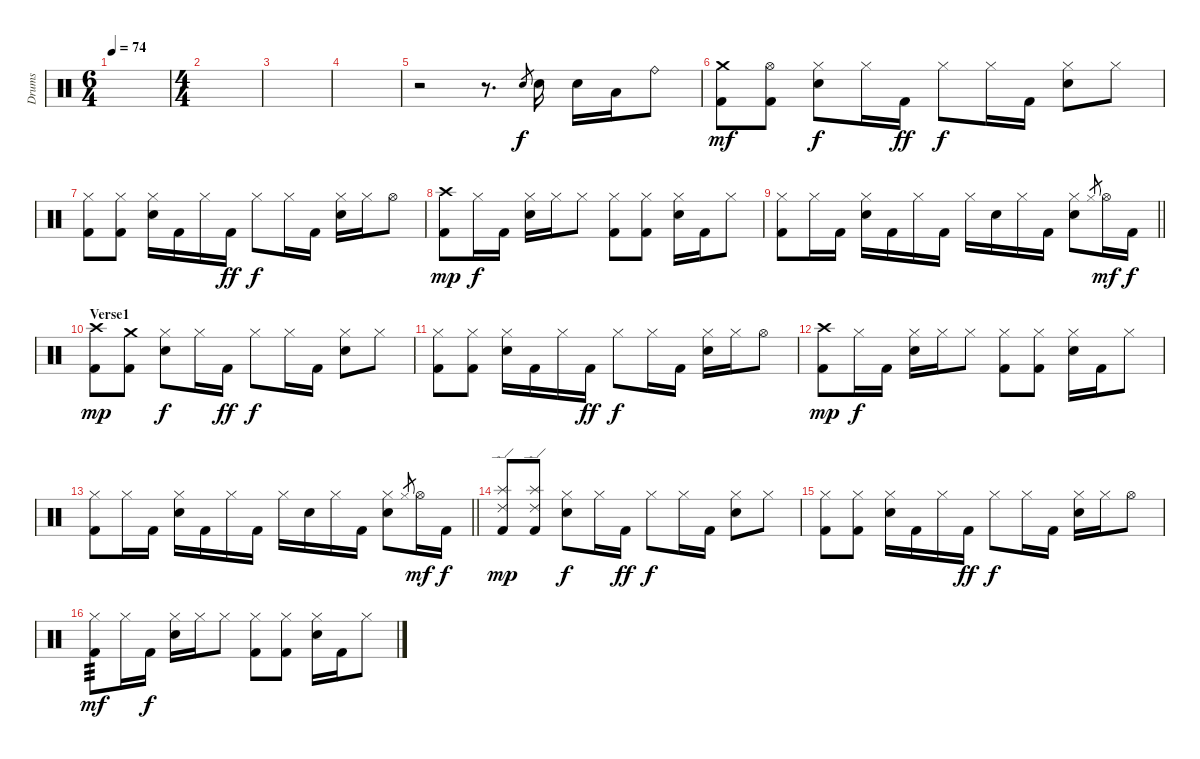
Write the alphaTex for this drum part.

\track ("Drums" "Drums") {instrument percussion}
\staff {score}
\articulation defaults
\ts (6 4)
\tempo 74
\clef neutral
\ks c
|
\ts (4 4)
|
|
|
r.2 r.8{d} "Snare (hit) 2".8{gr} "Snare (hit) 2".16{dy f} "Snare (hit) 2".16 "Low Tom (hit)".16 "Ride (bell)".8 |
("Crash medium (hit)" "Kick (hit) 2").8{dy mf} ("Hi-Hat (open)" "Kick (hit) 2").8 ("Hi-Hat (closed)" "Snare (hit) 2").8{dy f} "Hi-Hat (closed)".16 "Kick (hit) 2".16{dy ff} "Hi-Hat (closed)".8{dy f} "Hi-Hat (closed)".16 "Kick (hit) 2".16 ("Hi-Hat (closed)" "Snare (hit) 2").8 "Hi-Hat (closed)".8 |
("Hi-Hat (closed)" "Kick (hit) 2").8 ("Hi-Hat (closed)" "Kick (hit) 2").8 ("Hi-Hat (closed)" "Snare (hit) 2").16 "Kick (hit) 2".16 "Hi-Hat (closed)".16 "Kick (hit) 2".16{dy ff} "Hi-Hat (closed)".8{dy f} "Hi-Hat (closed)".16 "Kick (hit) 2".16 ("Hi-Hat (closed)" "Snare (hit) 2").16 "Hi-Hat (closed)".16 "Hi-Hat (open)".8 |
("Crash high (hit)" "Kick (hit) 2").8{dy mp} "Hi-Hat (closed)".16{dy f} "Kick (hit) 2".16 ("Hi-Hat (closed)" "Snare (hit) 2").16 "Hi-Hat (closed)".16 "Hi-Hat (closed)".8 ("Hi-Hat (closed)" "Kick (hit) 2").8 ("Hi-Hat (closed)" "Kick (hit) 2").8 ("Hi-Hat (closed)" "Snare (hit) 2").16 "Kick (hit) 2".16 "Hi-Hat (closed)".8 |
\barLineRight lightlight
("Hi-Hat (closed)" "Kick (hit) 2").8 "Hi-Hat (closed)".16 "Kick (hit) 2".16 ("Hi-Hat (closed)" "Snare (hit) 2").16 "Kick (hit) 2".16 "Hi-Hat (closed)".16 "Kick (hit) 2".16 "Hi-Hat (closed)".16 "Snare (hit) 2".16 "Hi-Hat (closed)".16 "Kick (hit) 2".16 ("Hi-Hat (closed)" "Snare (hit) 2").8 "Hi-Hat (closed)".8{gr} "Hi-Hat (open)".16{dy mf} "Kick (hit) 2".16{dy f} |
\section ("" "Verse1")
("Crash high (hit)" "Kick (hit) 2").8{dy mp} ("Crash medium (hit)" "Kick (hit) 2").8 ("Hi-Hat (closed)" "Snare (hit) 2").8{dy f} "Hi-Hat (closed)".16 "Kick (hit) 2".16{dy ff} "Hi-Hat (closed)".8{dy f} "Hi-Hat (closed)".16 "Kick (hit) 2".16 ("Hi-Hat (closed)" "Snare (hit) 2").8 "Hi-Hat (closed)".8 |
("Hi-Hat (closed)" "Kick (hit) 2").8 ("Hi-Hat (closed)" "Kick (hit) 2").8 ("Hi-Hat (closed)" "Snare (hit) 2").16 "Kick (hit) 2".16 "Hi-Hat (closed)".16 "Kick (hit) 2".16{dy ff} "Hi-Hat (closed)".8{dy f} "Hi-Hat (closed)".16 "Kick (hit) 2".16 ("Hi-Hat (closed)" "Snare (hit) 2").16 "Hi-Hat (closed)".16 "Hi-Hat (open)".8 |
("Crash high (hit)" "Kick (hit) 2").8{dy mp} "Hi-Hat (closed)".16{dy f} "Kick (hit) 2".16 ("Hi-Hat (closed)" "Snare (hit) 2").16 "Hi-Hat (closed)".16 "Hi-Hat (closed)".8 ("Hi-Hat (closed)" "Kick (hit) 2").8 ("Hi-Hat (closed)" "Kick (hit) 2").8 ("Hi-Hat (closed)" "Snare (hit) 2").16 "Kick (hit) 2".16 "Hi-Hat (closed)".8 |
\barLineRight lightlight
("Hi-Hat (closed)" "Kick (hit) 2").8 "Hi-Hat (closed)".16 "Kick (hit) 2".16 ("Hi-Hat (closed)" "Snare (hit) 2").16 "Kick (hit) 2".16 "Hi-Hat (closed)".16 "Kick (hit) 2".16 "Hi-Hat (closed)".16 "Snare (hit) 2".16 "Hi-Hat (closed)".16 "Kick (hit) 2".16 ("Hi-Hat (closed)" "Snare (hit) 2").8 "Hi-Hat (closed)".8{gr} "Hi-Hat (open)".16{dy mf} "Kick (hit) 2".16{dy f} |
("Splash (hit)" "Ride (edge) 2" "Kick (hit) 2").8{dy mp} ("Splash (hit)" "Ride (edge) 2" "Kick (hit) 2").8 ("Hi-Hat (closed)" "Snare (hit) 2").8{dy f} "Hi-Hat (closed)".16 "Kick (hit) 2".16{dy ff} "Hi-Hat (closed)".8{dy f} "Hi-Hat (closed)".16 "Kick (hit) 2".16 ("Hi-Hat (closed)" "Snare (hit) 2").8 "Hi-Hat (closed)".8 |
("Hi-Hat (closed)" "Kick (hit) 2").8 ("Hi-Hat (closed)" "Kick (hit) 2").8 ("Hi-Hat (closed)" "Snare (hit) 2").16 "Kick (hit) 2".16 "Hi-Hat (closed)".16 "Kick (hit) 2".16{dy ff} "Hi-Hat (closed)".8{dy f} "Hi-Hat (closed)".16 "Kick (hit) 2".16 ("Hi-Hat (closed)" "Snare (hit) 2").16 "Hi-Hat (closed)".16 "Hi-Hat (open)".8 |
("Hi-Hat (closed)" "Kick (hit) 2").8{tp 3 dy mf} "Hi-Hat (closed)".16 "Kick (hit) 2".16{dy f} ("Hi-Hat (closed)" "Snare (hit) 2").16 "Hi-Hat (closed)".16 "Hi-Hat (closed)".8 ("Hi-Hat (closed)" "Kick (hit) 2").8 ("Hi-Hat (closed)" "Kick (hit) 2").8 ("Hi-Hat (closed)" "Snare (hit) 2").16 "Kick (hit) 2".16 "Hi-Hat (closed)".8
